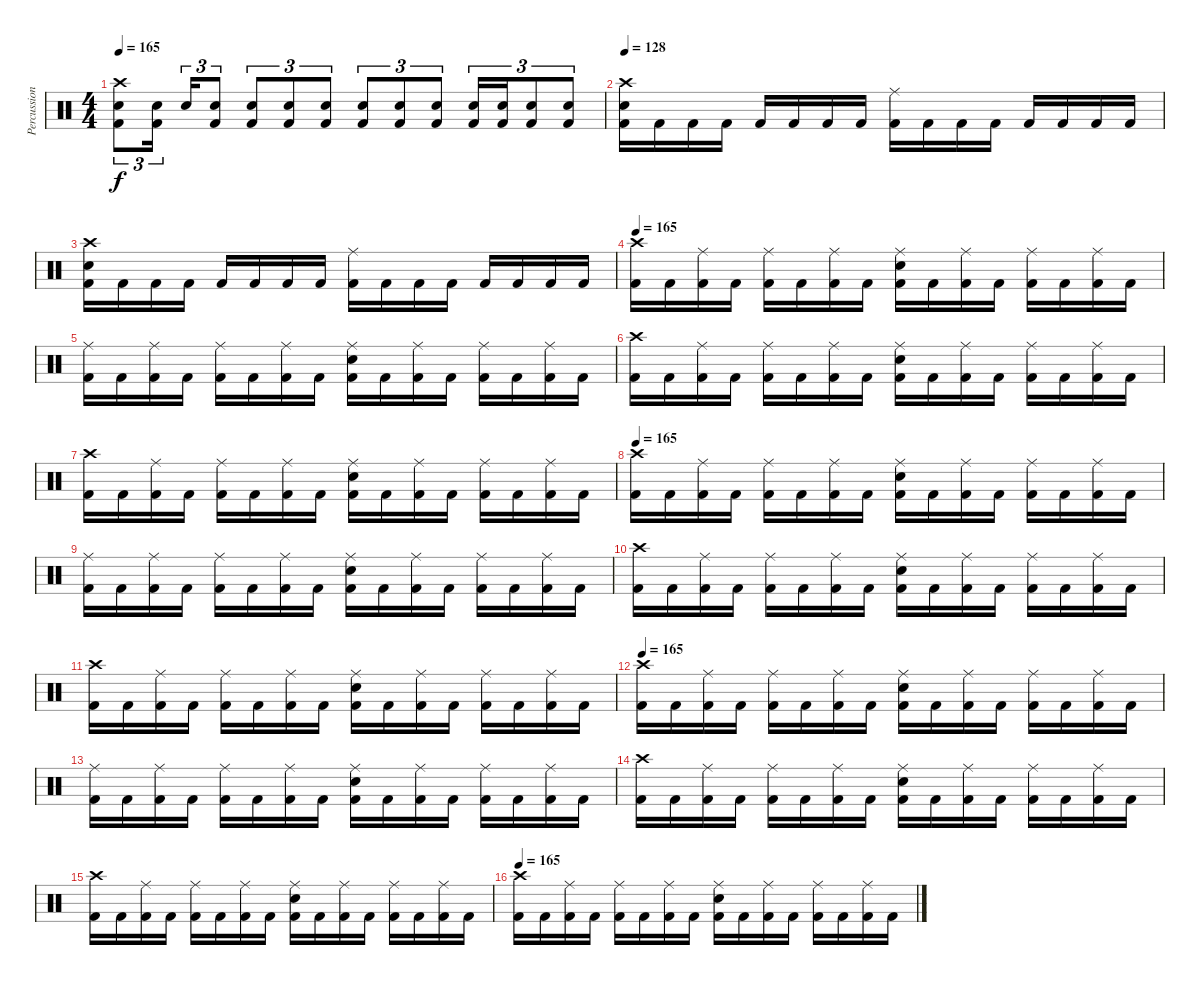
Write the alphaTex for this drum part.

\track ("Percussion" "Percussion") {instrument percussion}
\staff {score}
\articulation defaults
\ts (4 4)
\tempo 165
\clef neutral
\ks c
("Crash high (hit)" "Electric Snare (hit)" "Kick (hit) 2").8{tu (3 2) dy f} ("Electric Snare (hit)" "Kick (hit) 2").16{tu (3 2)} "Electric Snare (hit)".16{tu (3 2)} ("Electric Snare (hit)" "Kick (hit) 2").8{tu (3 2)} ("Electric Snare (hit)" "Kick (hit) 2").8{tu (3 2)} ("Electric Snare (hit)" "Kick (hit) 2").8{tu (3 2)} ("Electric Snare (hit)" "Kick (hit) 2").8{tu (3 2)} ("Electric Snare (hit)" "Kick (hit) 2").8{tu (3 2)} ("Electric Snare (hit)" "Kick (hit) 2").8{tu (3 2)} ("Electric Snare (hit)" "Kick (hit) 2").8{tu (3 2)} ("Electric Snare (hit)" "Kick (hit) 2").16{tu (3 2)} ("Electric Snare (hit)" "Kick (hit) 2").16{tu (3 2)} ("Electric Snare (hit)" "Kick (hit) 2").8{tu (3 2)} ("Electric Snare (hit)" "Kick (hit) 2").8{tu (3 2)} |
\tempo 128
("Crash high (hit)" "Electric Snare (hit)" "Kick (hit) 2").16 "Kick (hit) 2".16 "Kick (hit) 2".16 "Kick (hit) 2".16 "Kick (hit) 2".16 "Kick (hit) 2".16 "Kick (hit) 2".16 "Kick (hit) 2".16 ("Ride (middle)" "Kick (hit) 2").16 "Kick (hit) 2".16 "Kick (hit) 2".16 "Kick (hit) 2".16 "Kick (hit) 2".16 "Kick (hit) 2".16 "Kick (hit) 2".16 "Kick (hit) 2".16 |
("Crash high (hit)" "Electric Snare (hit)" "Kick (hit) 2").16 "Kick (hit) 2".16 "Kick (hit) 2".16 "Kick (hit) 2".16 "Kick (hit) 2".16 "Kick (hit) 2".16 "Kick (hit) 2".16 "Kick (hit) 2".16 ("Ride (middle)" "Kick (hit) 2").16 "Kick (hit) 2".16 "Kick (hit) 2".16 "Kick (hit) 2".16 "Kick (hit) 2".16 "Kick (hit) 2".16 "Kick (hit) 2".16 "Kick (hit) 2".16 |
\tempo 165
("Crash high (hit)" "Kick (hit) 2").16 "Kick (hit) 2".16 ("Ride (middle)" "Kick (hit) 2").16 "Kick (hit) 2".16 ("Ride (middle)" "Kick (hit) 2").16 "Kick (hit) 2".16 ("Ride (middle)" "Kick (hit) 2").16 "Kick (hit) 2".16 ("Ride (middle)" "Electric Snare (hit)" "Kick (hit) 2").16 "Kick (hit) 2".16 ("Ride (middle)" "Kick (hit) 2").16 "Kick (hit) 2".16 ("Ride (middle)" "Kick (hit) 2").16 "Kick (hit) 2".16 ("Ride (middle)" "Kick (hit) 2").16 "Kick (hit) 2".16 |
("Ride (middle)" "Kick (hit) 2").16 "Kick (hit) 2".16 ("Ride (middle)" "Kick (hit) 2").16 "Kick (hit) 2".16 ("Ride (middle)" "Kick (hit) 2").16 "Kick (hit) 2".16 ("Ride (middle)" "Kick (hit) 2").16 "Kick (hit) 2".16 ("Ride (middle)" "Electric Snare (hit)" "Kick (hit) 2").16 "Kick (hit) 2".16 ("Ride (middle)" "Kick (hit) 2").16 "Kick (hit) 2".16 ("Ride (middle)" "Kick (hit) 2").16 "Kick (hit) 2".16 ("Ride (middle)" "Kick (hit) 2").16 "Kick (hit) 2".16 |
("Crash high (hit)" "Kick (hit) 2").16 "Kick (hit) 2".16 ("Ride (middle)" "Kick (hit) 2").16 "Kick (hit) 2".16 ("Ride (middle)" "Kick (hit) 2").16 "Kick (hit) 2".16 ("Ride (middle)" "Kick (hit) 2").16 "Kick (hit) 2".16 ("Ride (middle)" "Electric Snare (hit)" "Kick (hit) 2").16 "Kick (hit) 2".16 ("Ride (middle)" "Kick (hit) 2").16 "Kick (hit) 2".16 ("Ride (middle)" "Kick (hit) 2").16 "Kick (hit) 2".16 ("Ride (middle)" "Kick (hit) 2").16 "Kick (hit) 2".16 |
("Crash high (hit)" "Kick (hit) 2").16 "Kick (hit) 2".16 ("Ride (middle)" "Kick (hit) 2").16 "Kick (hit) 2".16 ("Ride (middle)" "Kick (hit) 2").16 "Kick (hit) 2".16 ("Ride (middle)" "Kick (hit) 2").16 "Kick (hit) 2".16 ("Ride (middle)" "Electric Snare (hit)" "Kick (hit) 2").16 "Kick (hit) 2".16 ("Ride (middle)" "Kick (hit) 2").16 "Kick (hit) 2".16 ("Ride (middle)" "Kick (hit) 2").16 "Kick (hit) 2".16 ("Ride (middle)" "Kick (hit) 2").16 "Kick (hit) 2".16 |
\tempo 165
("Crash high (hit)" "Kick (hit) 2").16 "Kick (hit) 2".16 ("Ride (middle)" "Kick (hit) 2").16 "Kick (hit) 2".16 ("Ride (middle)" "Kick (hit) 2").16 "Kick (hit) 2".16 ("Ride (middle)" "Kick (hit) 2").16 "Kick (hit) 2".16 ("Ride (middle)" "Electric Snare (hit)" "Kick (hit) 2").16 "Kick (hit) 2".16 ("Ride (middle)" "Kick (hit) 2").16 "Kick (hit) 2".16 ("Ride (middle)" "Kick (hit) 2").16 "Kick (hit) 2".16 ("Ride (middle)" "Kick (hit) 2").16 "Kick (hit) 2".16 |
("Ride (middle)" "Kick (hit) 2").16 "Kick (hit) 2".16 ("Ride (middle)" "Kick (hit) 2").16 "Kick (hit) 2".16 ("Ride (middle)" "Kick (hit) 2").16 "Kick (hit) 2".16 ("Ride (middle)" "Kick (hit) 2").16 "Kick (hit) 2".16 ("Ride (middle)" "Electric Snare (hit)" "Kick (hit) 2").16 "Kick (hit) 2".16 ("Ride (middle)" "Kick (hit) 2").16 "Kick (hit) 2".16 ("Ride (middle)" "Kick (hit) 2").16 "Kick (hit) 2".16 ("Ride (middle)" "Kick (hit) 2").16 "Kick (hit) 2".16 |
("Crash high (hit)" "Kick (hit) 2").16 "Kick (hit) 2".16 ("Ride (middle)" "Kick (hit) 2").16 "Kick (hit) 2".16 ("Ride (middle)" "Kick (hit) 2").16 "Kick (hit) 2".16 ("Ride (middle)" "Kick (hit) 2").16 "Kick (hit) 2".16 ("Ride (middle)" "Electric Snare (hit)" "Kick (hit) 2").16 "Kick (hit) 2".16 ("Ride (middle)" "Kick (hit) 2").16 "Kick (hit) 2".16 ("Ride (middle)" "Kick (hit) 2").16 "Kick (hit) 2".16 ("Ride (middle)" "Kick (hit) 2").16 "Kick (hit) 2".16 |
("Crash high (hit)" "Kick (hit) 2").16 "Kick (hit) 2".16 ("Ride (middle)" "Kick (hit) 2").16 "Kick (hit) 2".16 ("Ride (middle)" "Kick (hit) 2").16 "Kick (hit) 2".16 ("Ride (middle)" "Kick (hit) 2").16 "Kick (hit) 2".16 ("Ride (middle)" "Electric Snare (hit)" "Kick (hit) 2").16 "Kick (hit) 2".16 ("Ride (middle)" "Kick (hit) 2").16 "Kick (hit) 2".16 ("Ride (middle)" "Kick (hit) 2").16 "Kick (hit) 2".16 ("Ride (middle)" "Kick (hit) 2").16 "Kick (hit) 2".16 |
\tempo 165
("Crash high (hit)" "Kick (hit) 2").16 "Kick (hit) 2".16 ("Ride (middle)" "Kick (hit) 2").16 "Kick (hit) 2".16 ("Ride (middle)" "Kick (hit) 2").16 "Kick (hit) 2".16 ("Ride (middle)" "Kick (hit) 2").16 "Kick (hit) 2".16 ("Ride (middle)" "Electric Snare (hit)" "Kick (hit) 2").16 "Kick (hit) 2".16 ("Ride (middle)" "Kick (hit) 2").16 "Kick (hit) 2".16 ("Ride (middle)" "Kick (hit) 2").16 "Kick (hit) 2".16 ("Ride (middle)" "Kick (hit) 2").16 "Kick (hit) 2".16 |
("Ride (middle)" "Kick (hit) 2").16 "Kick (hit) 2".16 ("Ride (middle)" "Kick (hit) 2").16 "Kick (hit) 2".16 ("Ride (middle)" "Kick (hit) 2").16 "Kick (hit) 2".16 ("Ride (middle)" "Kick (hit) 2").16 "Kick (hit) 2".16 ("Ride (middle)" "Electric Snare (hit)" "Kick (hit) 2").16 "Kick (hit) 2".16 ("Ride (middle)" "Kick (hit) 2").16 "Kick (hit) 2".16 ("Ride (middle)" "Kick (hit) 2").16 "Kick (hit) 2".16 ("Ride (middle)" "Kick (hit) 2").16 "Kick (hit) 2".16 |
("Crash high (hit)" "Kick (hit) 2").16 "Kick (hit) 2".16 ("Ride (middle)" "Kick (hit) 2").16 "Kick (hit) 2".16 ("Ride (middle)" "Kick (hit) 2").16 "Kick (hit) 2".16 ("Ride (middle)" "Kick (hit) 2").16 "Kick (hit) 2".16 ("Ride (middle)" "Electric Snare (hit)" "Kick (hit) 2").16 "Kick (hit) 2".16 ("Ride (middle)" "Kick (hit) 2").16 "Kick (hit) 2".16 ("Ride (middle)" "Kick (hit) 2").16 "Kick (hit) 2".16 ("Ride (middle)" "Kick (hit) 2").16 "Kick (hit) 2".16 |
("Crash high (hit)" "Kick (hit) 2").16 "Kick (hit) 2".16 ("Ride (middle)" "Kick (hit) 2").16 "Kick (hit) 2".16 ("Ride (middle)" "Kick (hit) 2").16 "Kick (hit) 2".16 ("Ride (middle)" "Kick (hit) 2").16 "Kick (hit) 2".16 ("Ride (middle)" "Electric Snare (hit)" "Kick (hit) 2").16 "Kick (hit) 2".16 ("Ride (middle)" "Kick (hit) 2").16 "Kick (hit) 2".16 ("Ride (middle)" "Kick (hit) 2").16 "Kick (hit) 2".16 ("Ride (middle)" "Kick (hit) 2").16 "Kick (hit) 2".16 |
\tempo 165
("Crash high (hit)" "Kick (hit) 2").16 "Kick (hit) 2".16 ("Ride (middle)" "Kick (hit) 2").16 "Kick (hit) 2".16 ("Ride (middle)" "Kick (hit) 2").16 "Kick (hit) 2".16 ("Ride (middle)" "Kick (hit) 2").16 "Kick (hit) 2".16 ("Ride (middle)" "Electric Snare (hit)" "Kick (hit) 2").16 "Kick (hit) 2".16 ("Ride (middle)" "Kick (hit) 2").16 "Kick (hit) 2".16 ("Ride (middle)" "Kick (hit) 2").16 "Kick (hit) 2".16 ("Ride (middle)" "Kick (hit) 2").16 "Kick (hit) 2".16
